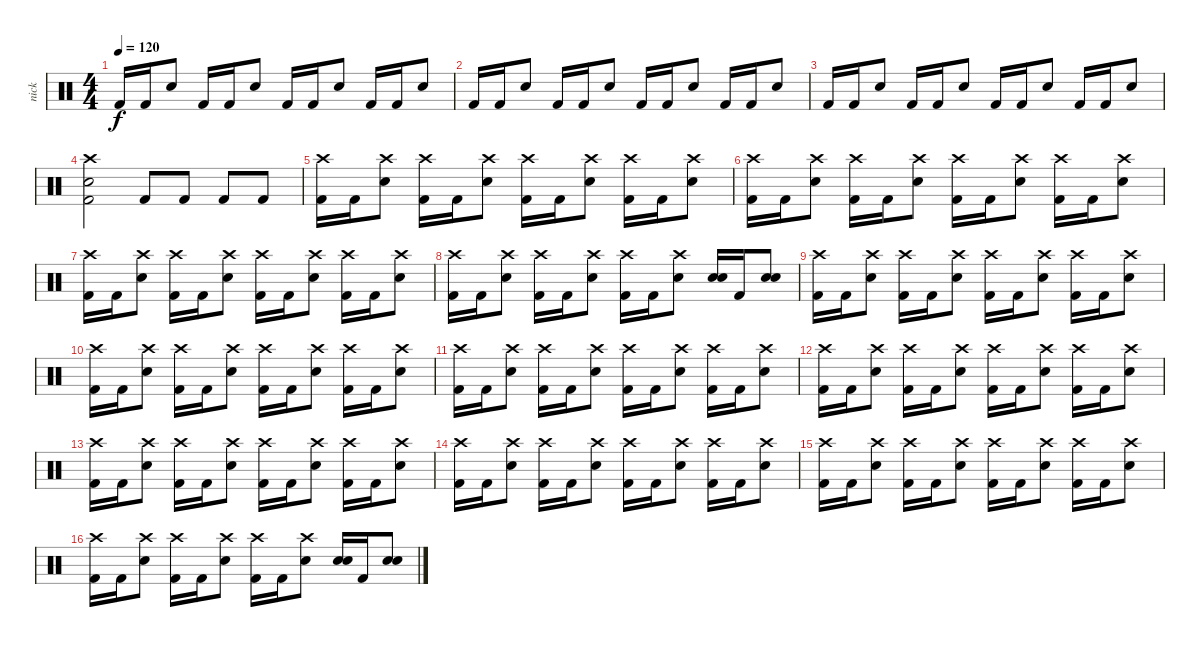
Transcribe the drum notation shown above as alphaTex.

\track ("nick" "nick") {instrument percussion}
\staff {score}
\articulation defaults
\ts (4 4)
\tempo 120
\tempo 100
\tempo 120
\clef neutral
\ks c "Kick (hit) 2".16{dy f} "Kick (hit) 2".16 "Snare (hit) 2".8 "Kick (hit) 2".16 "Kick (hit) 2".16 "Snare (hit) 2".8 "Kick (hit) 2".16 "Kick (hit) 2".16 "Snare (hit) 2".8 "Kick (hit) 2".16 "Kick (hit) 2".16 "Snare (hit) 2".8
|
"Kick (hit) 2".16 "Kick (hit) 2".16 "Snare (hit) 2".8 "Kick (hit) 2".16 "Kick (hit) 2".16 "Snare (hit) 2".8 "Kick (hit) 2".16 "Kick (hit) 2".16 "Snare (hit) 2".8 "Kick (hit) 2".16 "Kick (hit) 2".16 "Snare (hit) 2".8 |
"Kick (hit) 2".16 "Kick (hit) 2".16 "Snare (hit) 2".8 "Kick (hit) 2".16 "Kick (hit) 2".16 "Snare (hit) 2".8 "Kick (hit) 2".16 "Kick (hit) 2".16 "Snare (hit) 2".8 "Kick (hit) 2".16 "Kick (hit) 2".16 "Snare (hit) 2".8 |
("Kick (hit) 2" "Snare (hit) 2" "Crash high (hit)").2 "Kick (hit) 2".8 "Kick (hit) 2".8 "Kick (hit) 2".8 "Kick (hit) 2".8 |
("Kick (hit) 2" "Crash high (hit)").16 "Kick (hit) 2".16 ("Snare (hit) 2" "Crash high (hit)").8 ("Kick (hit) 2" "Crash high (hit)").16 "Kick (hit) 2".16 ("Snare (hit) 2" "Crash high (hit)").8 ("Kick (hit) 2" "Crash high (hit)").16 "Kick (hit) 2".16 ("Snare (hit) 2" "Crash high (hit)").8 ("Kick (hit) 2" "Crash high (hit)").16 "Kick (hit) 2".16 ("Snare (hit) 2" "Crash high (hit)").8 |
("Kick (hit) 2" "Crash high (hit)").16 "Kick (hit) 2".16 ("Snare (hit) 2" "Crash high (hit)").8 ("Kick (hit) 2" "Crash high (hit)").16 "Kick (hit) 2".16 ("Snare (hit) 2" "Crash high (hit)").8 ("Kick (hit) 2" "Crash high (hit)").16 "Kick (hit) 2".16 ("Snare (hit) 2" "Crash high (hit)").8 ("Kick (hit) 2" "Crash high (hit)").16 "Kick (hit) 2".16 ("Snare (hit) 2" "Crash high (hit)").8 |
("Kick (hit) 2" "Crash high (hit)").16 "Kick (hit) 2".16 ("Snare (hit) 2" "Crash high (hit)").8 ("Kick (hit) 2" "Crash high (hit)").16 "Kick (hit) 2".16 ("Snare (hit) 2" "Crash high (hit)").8 ("Kick (hit) 2" "Crash high (hit)").16 "Kick (hit) 2".16 ("Snare (hit) 2" "Crash high (hit)").8 ("Kick (hit) 2" "Crash high (hit)").16 "Kick (hit) 2".16 ("Snare (hit) 2" "Crash high (hit)").8 |
("Kick (hit) 2" "Crash high (hit)").16 "Kick (hit) 2".16 ("Snare (hit) 2" "Crash high (hit)").8 ("Kick (hit) 2" "Crash high (hit)").16 "Kick (hit) 2".16 ("Snare (hit) 2" "Crash high (hit)").8 ("Kick (hit) 2" "Crash high (hit)").16 "Kick (hit) 2".16 ("Snare (hit) 2" "Crash high (hit)").8 ("Snare (hit) 2" "Snare (hit)").16 "Kick (hit) 2".16 ("Snare (hit) 2" "Snare (hit)").8 |
("Kick (hit) 2" "Crash high (hit)").16 "Kick (hit) 2".16 ("Snare (hit) 2" "Crash high (hit)").8 ("Kick (hit) 2" "Crash high (hit)").16 "Kick (hit) 2".16 ("Snare (hit) 2" "Crash high (hit)").8 ("Kick (hit) 2" "Crash high (hit)").16 "Kick (hit) 2".16 ("Snare (hit) 2" "Crash high (hit)").8 ("Kick (hit) 2" "Crash high (hit)").16 "Kick (hit) 2".16 ("Snare (hit) 2" "Crash high (hit)").8 |
("Kick (hit) 2" "Crash high (hit)").16 "Kick (hit) 2".16 ("Snare (hit) 2" "Crash high (hit)").8 ("Kick (hit) 2" "Crash high (hit)").16 "Kick (hit) 2".16 ("Snare (hit) 2" "Crash high (hit)").8 ("Kick (hit) 2" "Crash high (hit)").16 "Kick (hit) 2".16 ("Snare (hit) 2" "Crash high (hit)").8 ("Kick (hit) 2" "Crash high (hit)").16 "Kick (hit) 2".16 ("Snare (hit) 2" "Crash high (hit)").8 |
("Kick (hit) 2" "Crash high (hit)").16 "Kick (hit) 2".16 ("Snare (hit) 2" "Crash high (hit)").8 ("Kick (hit) 2" "Crash high (hit)").16 "Kick (hit) 2".16 ("Snare (hit) 2" "Crash high (hit)").8 ("Kick (hit) 2" "Crash high (hit)").16 "Kick (hit) 2".16 ("Snare (hit) 2" "Crash high (hit)").8 ("Kick (hit) 2" "Crash high (hit)").16 "Kick (hit) 2".16 ("Snare (hit) 2" "Crash high (hit)").8 |
("Kick (hit) 2" "Crash high (hit)").16 "Kick (hit) 2".16 ("Snare (hit) 2" "Crash high (hit)").8 ("Kick (hit) 2" "Crash high (hit)").16 "Kick (hit) 2".16 ("Snare (hit) 2" "Crash high (hit)").8 ("Kick (hit) 2" "Crash high (hit)").16 "Kick (hit) 2".16 ("Snare (hit) 2" "Crash high (hit)").8 ("Kick (hit) 2" "Crash high (hit)").16 "Kick (hit) 2".16 ("Snare (hit) 2" "Crash high (hit)").8 |
("Kick (hit) 2" "Crash high (hit)").16 "Kick (hit) 2".16 ("Snare (hit) 2" "Crash high (hit)").8 ("Kick (hit) 2" "Crash high (hit)").16 "Kick (hit) 2".16 ("Snare (hit) 2" "Crash high (hit)").8 ("Kick (hit) 2" "Crash high (hit)").16 "Kick (hit) 2".16 ("Snare (hit) 2" "Crash high (hit)").8 ("Kick (hit) 2" "Crash high (hit)").16 "Kick (hit) 2".16 ("Snare (hit) 2" "Crash high (hit)").8 |
("Kick (hit) 2" "Crash high (hit)").16 "Kick (hit) 2".16 ("Snare (hit) 2" "Crash high (hit)").8 ("Kick (hit) 2" "Crash high (hit)").16 "Kick (hit) 2".16 ("Snare (hit) 2" "Crash high (hit)").8 ("Kick (hit) 2" "Crash high (hit)").16 "Kick (hit) 2".16 ("Snare (hit) 2" "Crash high (hit)").8 ("Kick (hit) 2" "Crash high (hit)").16 "Kick (hit) 2".16 ("Snare (hit) 2" "Crash high (hit)").8 |
("Kick (hit) 2" "Crash high (hit)").16 "Kick (hit) 2".16 ("Snare (hit) 2" "Crash high (hit)").8 ("Kick (hit) 2" "Crash high (hit)").16 "Kick (hit) 2".16 ("Snare (hit) 2" "Crash high (hit)").8 ("Kick (hit) 2" "Crash high (hit)").16 "Kick (hit) 2".16 ("Snare (hit) 2" "Crash high (hit)").8 ("Kick (hit) 2" "Crash high (hit)").16 "Kick (hit) 2".16 ("Snare (hit) 2" "Crash high (hit)").8 |
("Kick (hit) 2" "Crash high (hit)").16 "Kick (hit) 2".16 ("Snare (hit) 2" "Crash high (hit)").8 ("Kick (hit) 2" "Crash high (hit)").16 "Kick (hit) 2".16 ("Snare (hit) 2" "Crash high (hit)").8 ("Kick (hit) 2" "Crash high (hit)").16 "Kick (hit) 2".16 ("Snare (hit) 2" "Crash high (hit)").8 ("Snare (hit) 2" "Snare (hit)").16 "Kick (hit) 2".16 ("Snare (hit) 2" "Snare (hit)").8
